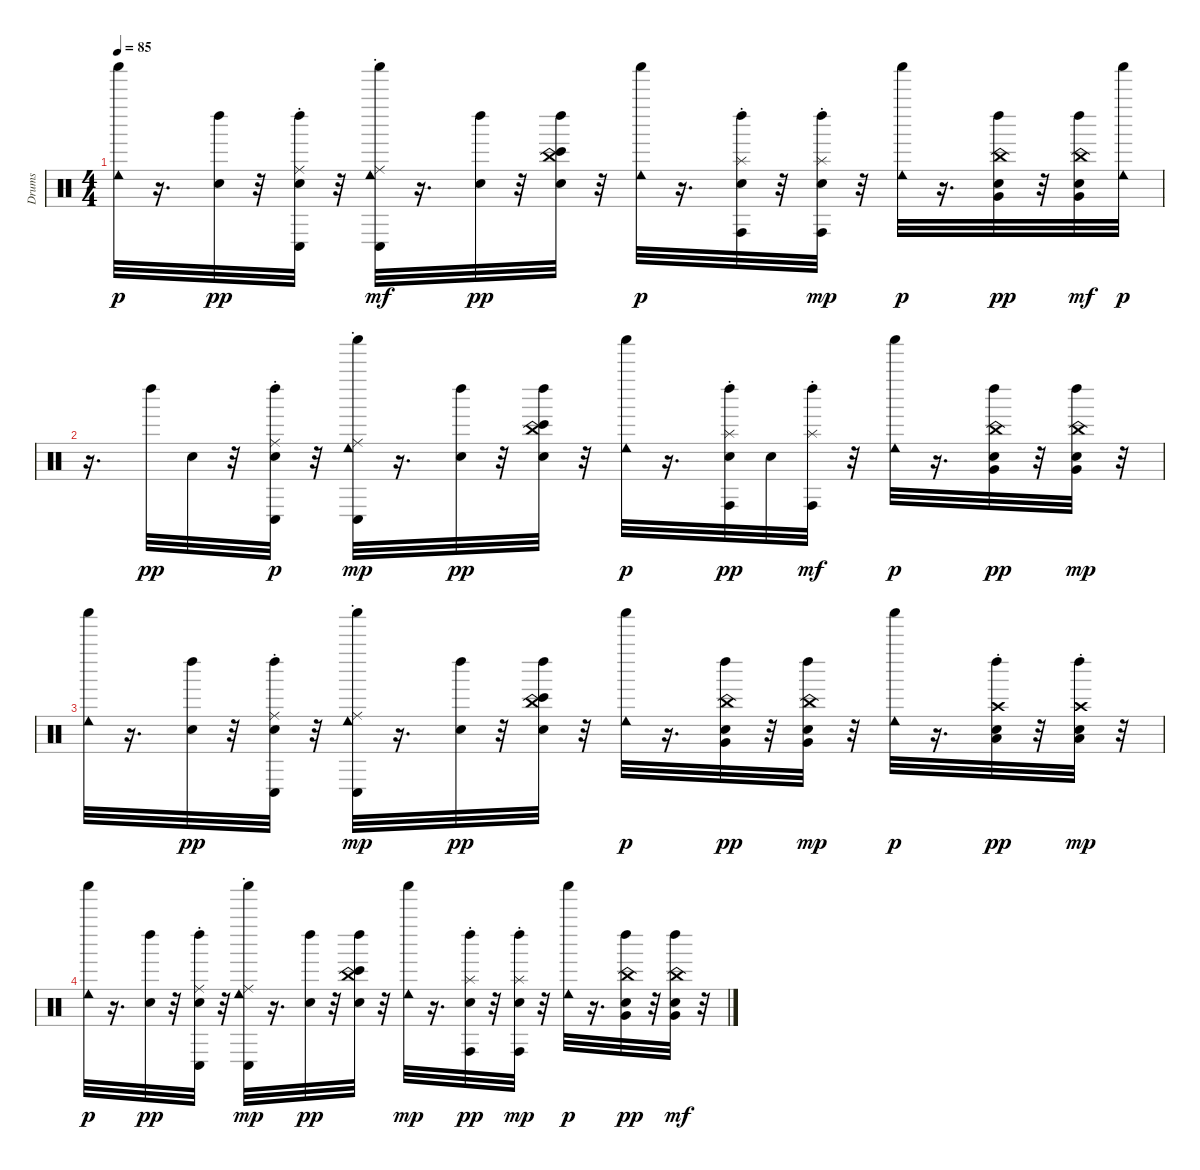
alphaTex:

\track ("Drums" "Drums") {instrument percussion}
\staff {score}
\articulation defaults
\ts (4 4)
\tempo 85
\clef neutral
\ks c
("Shaker (hit)" "Cowbell low (hit)").32{dy p} r.16{d} ("Left Maraca (hit)" "Snare (hit)").32{dy pp} r.32 ("Conga low (hit)" "Ride (choke)" "Left Maraca (hit)" "Snare (hit)").32 r.32 ("Cowbell low (hit)" "Shaker (hit)" "Conga low (hit)" "Ride (choke)").32{dy mf} r.16{d} ("Snare (hit)" "Left Maraca (hit)").32{dy pp} r.32 ("Bongo High (hit)" "Left Maraca (hit)" "China (choke)" "Snare (hit)").32 r.32 ("Shaker (hit)" "Cowbell low (hit)").32{dy p} r.16{d} ("Conga high (hit)" "Left Maraca (hit)" "Splash (choke)" "Snare (hit)").32 r.32 ("Left Maraca (hit)" "Snare (hit)" "Conga high (hit)" "Splash (choke)").32{dy mp} r.32 ("Shaker (hit)" "Cowbell low (hit)").32{dy p} r.16{d} ("Very Low Tom (hit)" "China (choke)" "Left Maraca (hit)" "Snare (hit)").32{dy pp} r.32 ("Left Maraca (hit)" "China (choke)" "Snare (hit)" "Very Low Tom (hit)").32{dy mf} ("Shaker (hit)" "Cowbell low (hit)").32{dy p} |
r.16{d} "Left Maraca (hit)".32{dy pp} "Snare (hit)".32 r.32 ("Conga low (hit)" "Ride (choke)" "Snare (hit)" "Left Maraca (hit)").32{dy p} r.32 ("Shaker (hit)" "Cowbell low (hit)" "Conga low (hit)" "Ride (choke)").32{dy mp} r.16{d} ("Left Maraca (hit)" "Snare (hit)").32{dy pp} r.32 ("China (choke)" "Bongo High (hit)" "Left Maraca (hit)" "Snare (hit)").32 r.32 ("Shaker (hit)" "Cowbell low (hit)").32{dy p} r.16{d} ("Conga high (hit)" "Splash (choke)" "Left Maraca (hit)" "Snare (hit)").32{dy pp} "Snare (hit)".32 ("Left Maraca (hit)" "Splash (choke)" "Conga high (hit)").32{dy mf} r.32 ("Shaker (hit)" "Cowbell low (hit)").32{dy p} r.16{d} ("China (choke)" "Very Low Tom (hit)" "Left Maraca (hit)" "Snare (hit)").32{dy pp} r.32 ("Left Maraca (hit)" "Snare (hit)" "China (choke)" "Very Low Tom (hit)").32{dy mp} r.32 |
("Cowbell low (hit)" "Shaker (hit)").32 r.16{d} ("Snare (hit)" "Left Maraca (hit)").32{dy pp} r.32 ("Conga low (hit)" "Ride (choke)" "Left Maraca (hit)" "Snare (hit)").32 r.32 ("Shaker (hit)" "Conga low (hit)" "Cowbell low (hit)" "Ride (choke)").32{dy mp} r.16{d} ("Left Maraca (hit)" "Snare (hit)").32{dy pp} r.32 ("Bongo High (hit)" "China (choke)" "Left Maraca (hit)" "Snare (hit)").32 r.32 ("Shaker (hit)" "Cowbell low (hit)").32{dy p} r.16{d} ("China (choke)" "Very Low Tom (hit)" "Left Maraca (hit)" "Snare (hit)").32{dy pp} r.32 ("Snare (hit)" "Left Maraca (hit)" "China (choke)" "Very Low Tom (hit)").32{dy mp} r.32 ("Shaker (hit)" "Cowbell low (hit)").32{dy p} r.16{d} ("Crash high (choke)" "Low Floor Tom (hit)" "Left Maraca (hit)" "Snare (hit)").32{dy pp} r.32 ("Left Maraca (hit)" "Snare (hit)" "Crash high (choke)" "Low Floor Tom (hit)").32{dy mp} r.32 |
("Shaker (hit)" "Cowbell low (hit)").32{dy p} r.16{d} ("Left Maraca (hit)" "Snare (hit)").32{dy pp} r.32 ("Conga low (hit)" "Ride (choke)" "Left Maraca (hit)" "Snare (hit)").32 r.32 ("Shaker (hit)" "Cowbell low (hit)" "Conga low (hit)" "Ride (choke)").32{dy mp} r.16{d} ("Snare (hit)" "Left Maraca (hit)").32{dy pp} r.32 ("Bongo High (hit)" "China (choke)" "Left Maraca (hit)" "Snare (hit)").32 r.32 ("Cowbell low (hit)" "Shaker (hit)").32{dy mp} r.16{d} ("Conga high (hit)" "Splash (choke)" "Left Maraca (hit)" "Snare (hit)").32{dy pp} r.32 ("Left Maraca (hit)" "Snare (hit)" "Conga high (hit)" "Splash (choke)").32{dy mp} r.32 ("Shaker (hit)" "Cowbell low (hit)").32{dy p} r.16{d} ("China (choke)" "Very Low Tom (hit)" "Left Maraca (hit)" "Snare (hit)").32{dy pp} r.32 ("Left Maraca (hit)" "Snare (hit)" "Very Low Tom (hit)" "China (choke)").32{dy mf} r.32
